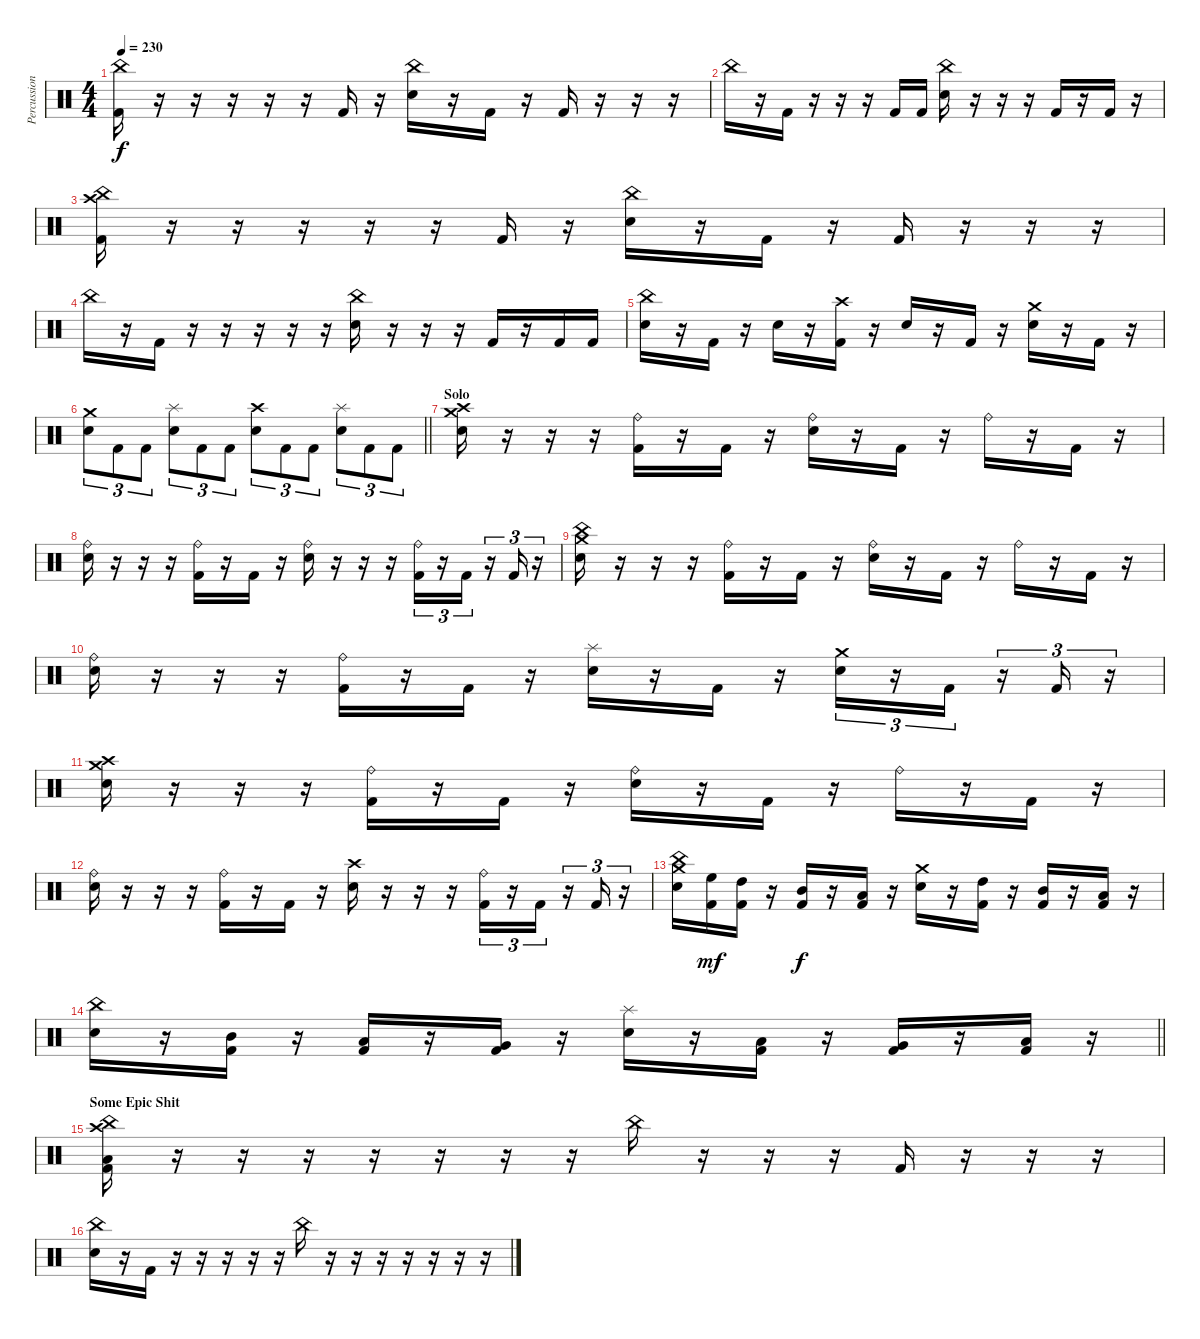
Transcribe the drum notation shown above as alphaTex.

\track ("Percussion" "Percussion") {instrument percussion}
\staff {score}
\articulation defaults
\ts (4 4)
\tempo 230
\clef neutral
\ks c
("China (hit)" "Kick (hit) 2").16{dy f} r.16 r.16 r.16 r.16 r.16 "Kick (hit) 2".16 r.16 ("China (hit)" "Electric Snare (hit)").16 r.16 "Kick (hit) 2".16 r.16 "Kick (hit) 2".16 r.16 r.16 r.16 |
"China (hit)".16 r.16 "Kick (hit) 2".16 r.16 r.16 r.16 "Kick (hit) 2".16 "Kick (hit) 2".16 ("China (hit)" "Electric Snare (hit)").16 r.16 r.16 r.16 "Kick (hit) 2".16 r.16 "Kick (hit) 2".16 r.16 |
("China (hit)" "Crash high (hit)" "Kick (hit) 2").16 r.16 r.16 r.16 r.16 r.16 "Kick (hit) 2".16 r.16 ("China (hit)" "Electric Snare (hit)").16 r.16 "Kick (hit) 2".16 r.16 "Kick (hit) 2".16 r.16 r.16 r.16 |
"China (hit)".16 r.16 "Kick (hit) 2".16 r.16 r.16 r.16 r.16 r.16 ("China (hit)" "Electric Snare (hit)").16 r.16 r.16 r.16 "Kick (hit) 2".16 r.16 "Kick (hit) 2".16 "Kick (hit) 2".16 |
("China (hit)" "Electric Snare (hit)").16 r.16 "Kick (hit) 2".16 r.16 "Electric Snare (hit)".16 r.16 ("Crash high (hit)" "Kick (hit) 2").16 r.16 "Electric Snare (hit)".16 r.16 "Kick (hit) 2".16 r.16 ("Crash medium (hit)" "Electric Snare (hit)").16 r.16 "Kick (hit) 2".16 r.16 |
\barLineRight lightlight
("Crash medium (hit)" "Electric Snare (hit)").8{tu (3 2)} "Kick (hit) 2".8{tu (3 2)} "Kick (hit) 2".8{tu (3 2)} ("Splash (hit)" "Electric Snare (hit)").8{tu (3 2)} "Kick (hit) 2".8{tu (3 2)} "Kick (hit) 2".8{tu (3 2)} ("Crash high (hit)" "Electric Snare (hit)").8{tu (3 2)} "Kick (hit) 2".8{tu (3 2)} "Kick (hit) 2".8{tu (3 2)} ("Splash (hit)" "Electric Snare (hit)").8{tu (3 2)} "Kick (hit) 2".8{tu (3 2)} "Kick (hit) 2".8{tu (3 2)} |
\section ("" "Solo")
("Crash high (hit)" "Crash medium (hit)" "Electric Snare (hit)").16 r.16 r.16 r.16 ("Ride (bell)" "Kick (hit) 2").16 r.16 "Kick (hit) 2".16 r.16 ("Ride (bell)" "Electric Snare (hit)").16 r.16 "Kick (hit) 2".16 r.16 "Ride (bell)".16 r.16 "Kick (hit) 2".16 r.16 |
("Ride (bell)" "Electric Snare (hit)").16 r.16 r.16 r.16 ("Ride (bell)" "Kick (hit) 2").16 r.16 "Kick (hit) 2".16 r.16 ("Ride (bell)" "Electric Snare (hit)").16 r.16 r.16 r.16 ("Ride (bell)" "Kick (hit) 2").16{tu (3 2)} r.16{tu (3 2)} "Kick (hit) 2".16{tu (3 2)} r.16{tu (3 2)} "Kick (hit) 2".16{tu (3 2)} r.16{tu (3 2)} |
("Crash medium (hit)" "China (hit)" "Electric Snare (hit)").16 r.16 r.16 r.16 ("Ride (bell)" "Kick (hit) 2").16 r.16 "Kick (hit) 2".16 r.16 ("Ride (bell)" "Electric Snare (hit)").16 r.16 "Kick (hit) 2".16 r.16 "Ride (bell)".16 r.16 "Kick (hit) 2".16 r.16 |
("Ride (bell)" "Electric Snare (hit)").16 r.16 r.16 r.16 ("Ride (bell)" "Kick (hit) 2").16 r.16 "Kick (hit) 2".16 r.16 ("Splash (hit)" "Electric Snare (hit)").16 r.16 "Kick (hit) 2".16 r.16 ("Crash medium (hit)" "Electric Snare (hit)").16{tu (3 2)} r.16{tu (3 2)} "Kick (hit) 2".16{tu (3 2)} r.16{tu (3 2)} "Kick (hit) 2".16{tu (3 2)} r.16{tu (3 2)} |
("Crash high (hit)" "Crash medium (hit)" "Electric Snare (hit)").16 r.16 r.16 r.16 ("Ride (bell)" "Kick (hit) 2").16 r.16 "Kick (hit) 2".16 r.16 ("Ride (bell)" "Electric Snare (hit)").16 r.16 "Kick (hit) 2".16 r.16 "Ride (bell)".16 r.16 "Kick (hit) 2".16 r.16 |
("Ride (bell)" "Electric Snare (hit)").16 r.16 r.16 r.16 ("Ride (bell)" "Kick (hit) 2").16 r.16 "Kick (hit) 2".16 r.16 ("Crash high (hit)" "Electric Snare (hit)").16 r.16 r.16 r.16 ("Ride (bell)" "Kick (hit) 2").16{tu (3 2)} r.16{tu (3 2)} "Kick (hit) 2".16{tu (3 2)} r.16{tu (3 2)} "Kick (hit) 2".16{tu (3 2)} r.16{tu (3 2)} |
("Crash medium (hit)" "China (hit)" "Electric Snare (hit)").16 ("High Floor Tom (hit)" "Kick (hit) 2").16{dy mf} ("High Tom (hit)" "Kick (hit) 2").16 r.16 ("Mid Tom (hit)" "Kick (hit) 2").16{dy f} r.16 ("Low Tom (hit)" "Kick (hit) 2").16 r.16 ("Crash medium (hit)" "Electric Snare (hit)").16 r.16 ("High Tom (hit)" "Kick (hit) 2").16 r.16 ("Mid Tom (hit)" "Kick (hit) 2").16 r.16 ("Low Tom (hit)" "Kick (hit) 2").16 r.16 |
\barLineRight lightlight
("China (hit)" "Electric Snare (hit)").16 r.16 ("Mid Tom (hit)" "Kick (hit) 2").16 r.16 ("Low Tom (hit)" "Kick (hit) 2").16 r.16 ("Very Low Tom (hit)" "Kick (hit) 2").16 r.16 ("Splash (hit)" "Electric Snare (hit)").16 r.16 ("Low Tom (hit)" "Kick (hit) 2").16 r.16 ("Very Low Tom (hit)" "Kick (hit) 2").16 r.16 ("Low Floor Tom (hit)" "Kick (hit) 2").16 r.16 |
\section ("" "Some Epic Shit")
("China (hit)" "Crash high (hit)" "Low Floor Tom (hit)" "Kick (hit) 2").16 r.16 r.16 r.16 r.16 r.16 r.16 r.16 "China (hit)".16 r.16 r.16 r.16 "Kick (hit) 2".16 r.16 r.16 r.16 |
("China (hit)" "Electric Snare (hit)").16 r.16 "Kick (hit) 2".16 r.16 r.16 r.16 r.16 r.16 "China (hit)".16 r.16 r.16 r.16 r.16 r.16 r.16 r.16
